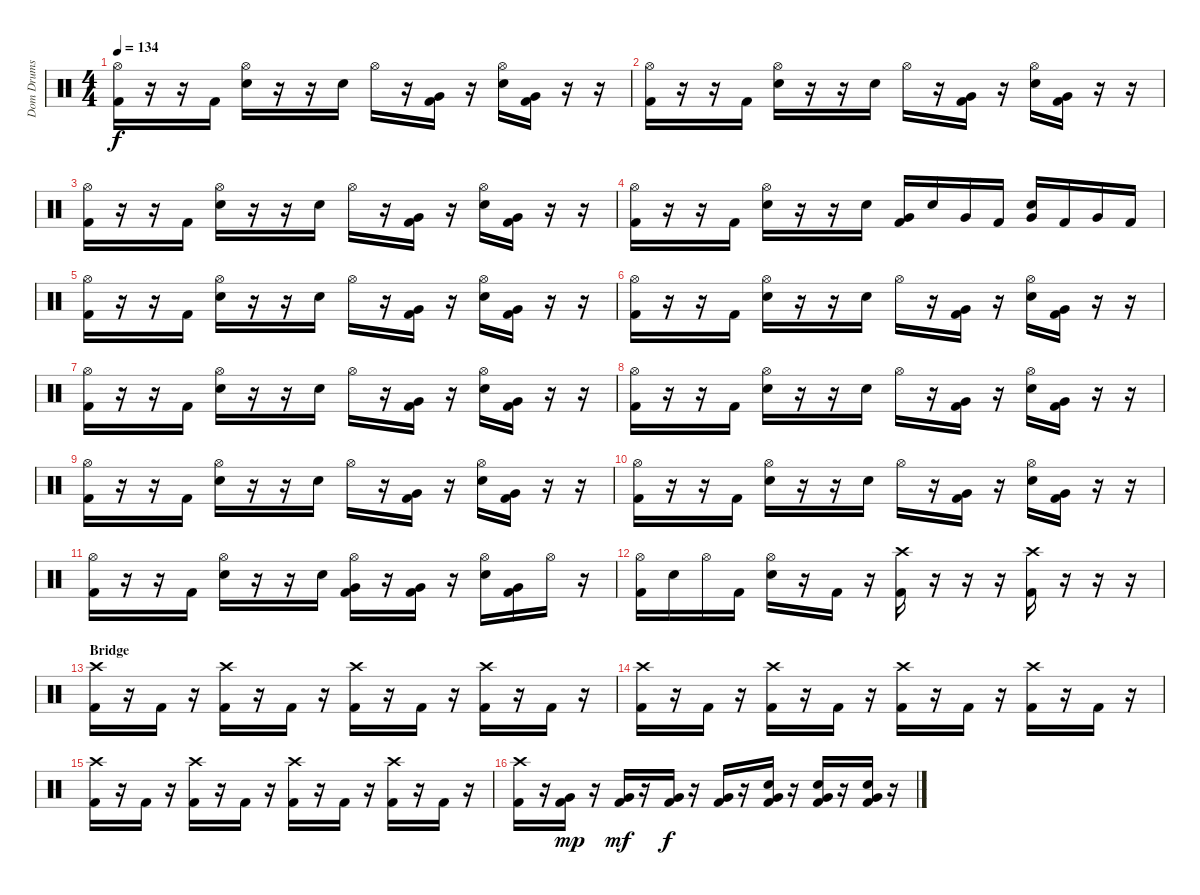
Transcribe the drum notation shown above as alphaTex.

\track ("Dom Drums" "Dom Drums") {instrument percussion}
\staff {score}
\articulation defaults
\ts (4 4)
\tempo 134
\clef neutral
\ks c
("Hi-Hat (open)" "Kick (hit) 2").16{dy f} r.16 r.16 "Kick (hit) 2".16 ("Hi-Hat (open)" "Electric Snare (hit)").16 r.16 r.16 "Electric Snare (hit)".16 "Hi-Hat (open)".16 r.16 ("Very Low Tom (hit)" "Kick (hit) 2").16 r.16 ("Hi-Hat (open)" "Electric Snare (hit)").16 ("Very Low Tom (hit)" "Kick (hit) 2").16 r.16 r.16 |
("Hi-Hat (open)" "Kick (hit) 2").16 r.16 r.16 "Kick (hit) 2".16 ("Hi-Hat (open)" "Electric Snare (hit)").16 r.16 r.16 "Electric Snare (hit)".16 "Hi-Hat (open)".16 r.16 ("Very Low Tom (hit)" "Kick (hit) 2").16 r.16 ("Hi-Hat (open)" "Electric Snare (hit)").16 ("Very Low Tom (hit)" "Kick (hit) 2").16 r.16 r.16 |
("Hi-Hat (open)" "Kick (hit) 2").16 r.16 r.16 "Kick (hit) 2".16 ("Hi-Hat (open)" "Electric Snare (hit)").16 r.16 r.16 "Electric Snare (hit)".16 "Hi-Hat (open)".16 r.16 ("Very Low Tom (hit)" "Kick (hit) 2").16 r.16 ("Hi-Hat (open)" "Electric Snare (hit)").16 ("Very Low Tom (hit)" "Kick (hit) 2").16 r.16 r.16 |
("Hi-Hat (open)" "Kick (hit) 2").16 r.16 r.16 "Kick (hit) 2".16 ("Hi-Hat (open)" "Electric Snare (hit)").16 r.16 r.16 "Electric Snare (hit)".16 ("Very Low Tom (hit)" "Kick (hit) 2").16 "Electric Snare (hit)".16 "Very Low Tom (hit)".16 "Kick (hit) 2".16 ("Electric Snare (hit)" "Very Low Tom (hit)").16 "Kick (hit) 2".16 "Very Low Tom (hit)".16 "Kick (hit) 2".16 |
("Hi-Hat (open)" "Kick (hit) 2").16 r.16 r.16 "Kick (hit) 2".16 ("Hi-Hat (open)" "Electric Snare (hit)").16 r.16 r.16 "Electric Snare (hit)".16 "Hi-Hat (open)".16 r.16 ("Very Low Tom (hit)" "Kick (hit) 2").16 r.16 ("Hi-Hat (open)" "Electric Snare (hit)").16 ("Very Low Tom (hit)" "Kick (hit) 2").16 r.16 r.16 |
("Hi-Hat (open)" "Kick (hit) 2").16 r.16 r.16 "Kick (hit) 2".16 ("Hi-Hat (open)" "Electric Snare (hit)").16 r.16 r.16 "Electric Snare (hit)".16 "Hi-Hat (open)".16 r.16 ("Very Low Tom (hit)" "Kick (hit) 2").16 r.16 ("Hi-Hat (open)" "Electric Snare (hit)").16 ("Very Low Tom (hit)" "Kick (hit) 2").16 r.16 r.16 |
("Hi-Hat (open)" "Kick (hit) 2").16 r.16 r.16 "Kick (hit) 2".16 ("Hi-Hat (open)" "Electric Snare (hit)").16 r.16 r.16 "Electric Snare (hit)".16 "Hi-Hat (open)".16 r.16 ("Very Low Tom (hit)" "Kick (hit) 2").16 r.16 ("Hi-Hat (open)" "Electric Snare (hit)").16 ("Very Low Tom (hit)" "Kick (hit) 2").16 r.16 r.16 |
("Hi-Hat (open)" "Kick (hit) 2").16 r.16 r.16 "Kick (hit) 2".16 ("Hi-Hat (open)" "Electric Snare (hit)").16 r.16 r.16 "Electric Snare (hit)".16 "Hi-Hat (open)".16 r.16 ("Very Low Tom (hit)" "Kick (hit) 2").16 r.16 ("Hi-Hat (open)" "Electric Snare (hit)").16 ("Very Low Tom (hit)" "Kick (hit) 2").16 r.16 r.16 |
("Hi-Hat (open)" "Kick (hit) 2").16 r.16 r.16 "Kick (hit) 2".16 ("Hi-Hat (open)" "Electric Snare (hit)").16 r.16 r.16 "Electric Snare (hit)".16 "Hi-Hat (open)".16 r.16 ("Very Low Tom (hit)" "Kick (hit) 2").16 r.16 ("Hi-Hat (open)" "Electric Snare (hit)").16 ("Very Low Tom (hit)" "Kick (hit) 2").16 r.16 r.16 |
("Hi-Hat (open)" "Kick (hit) 2").16 r.16 r.16 "Kick (hit) 2".16 ("Hi-Hat (open)" "Electric Snare (hit)").16 r.16 r.16 "Electric Snare (hit)".16 "Hi-Hat (open)".16 r.16 ("Very Low Tom (hit)" "Kick (hit) 2").16 r.16 ("Hi-Hat (open)" "Electric Snare (hit)").16 ("Very Low Tom (hit)" "Kick (hit) 2").16 r.16 r.16 |
("Hi-Hat (open)" "Kick (hit) 2").16 r.16 r.16 "Kick (hit) 2".16 ("Hi-Hat (open)" "Electric Snare (hit)").16 r.16 r.16 "Electric Snare (hit)".16 ("Hi-Hat (open)" "Very Low Tom (hit)" "Kick (hit) 2").16 r.16 ("Very Low Tom (hit)" "Kick (hit) 2").16 r.16 ("Hi-Hat (open)" "Electric Snare (hit)").16 ("Very Low Tom (hit)" "Kick (hit) 2").16 "Hi-Hat (open)".16 r.16 |
("Hi-Hat (open)" "Kick (hit) 2").16 "Electric Snare (hit)".16 "Hi-Hat (open)".16 "Kick (hit) 2".16 ("Hi-Hat (open)" "Electric Snare (hit)").16 r.16 "Kick (hit) 2".16 r.16 ("Crash high (hit)" "Kick (hit) 2").16 r.16 r.16 r.16 ("Crash high (hit)" "Kick (hit) 2").16 r.16 r.16 r.16 |
\section ("" "Bridge")
("Crash high (hit)" "Kick (hit) 2").16 r.16 "Kick (hit) 2".16 r.16 ("Crash high (hit)" "Kick (hit) 2").16 r.16 "Kick (hit) 2".16 r.16 ("Crash high (hit)" "Kick (hit) 2").16 r.16 "Kick (hit) 2".16 r.16 ("Crash high (hit)" "Kick (hit) 2").16 r.16 "Kick (hit) 2".16 r.16 |
("Crash high (hit)" "Kick (hit) 2").16 r.16 "Kick (hit) 2".16 r.16 ("Crash high (hit)" "Kick (hit) 2").16 r.16 "Kick (hit) 2".16 r.16 ("Crash high (hit)" "Kick (hit) 2").16 r.16 "Kick (hit) 2".16 r.16 ("Crash high (hit)" "Kick (hit) 2").16 r.16 "Kick (hit) 2".16 r.16 |
("Crash high (hit)" "Kick (hit) 2").16 r.16 "Kick (hit) 2".16 r.16 ("Crash high (hit)" "Kick (hit) 2").16 r.16 "Kick (hit) 2".16 r.16 ("Crash high (hit)" "Kick (hit) 2").16 r.16 "Kick (hit) 2".16 r.16 ("Crash high (hit)" "Kick (hit) 2").16 r.16 "Kick (hit) 2".16 r.16 |
("Crash high (hit)" "Kick (hit) 2").16 r.16 ("Very Low Tom (hit)" "Kick (hit) 2").16{dy mp} r.16 ("Very Low Tom (hit)" "Kick (hit) 2").16{dy mf} r.16 ("Very Low Tom (hit)" "Kick (hit) 2").16{dy f} r.16 ("Very Low Tom (hit)" "Kick (hit) 2").16 r.16 ("Electric Snare (hit)" "Very Low Tom (hit)" "Kick (hit) 2").16 r.16 ("Electric Snare (hit)" "Very Low Tom (hit)" "Kick (hit) 2").16 r.16 ("Electric Snare (hit)" "Very Low Tom (hit)" "Kick (hit) 2").16 r.16
